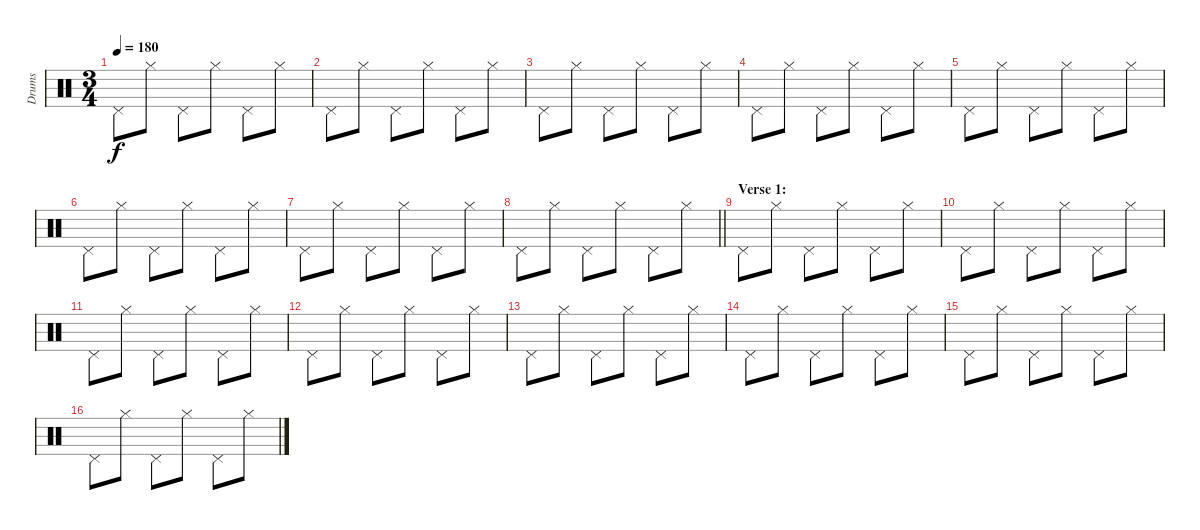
\track ("Drums" "Drums") {instrument percussion}
\staff {score}
\articulation defaults
\ts (3 4)
\tempo 180
\clef neutral
\ks c "Pedal Hi-Hat (hit)".8{dy f} "Hi-Hat (closed)".8 "Pedal Hi-Hat (hit)".8 "Hi-Hat (closed)".8 "Pedal Hi-Hat (hit)".8 "Hi-Hat (closed)".8
|
"Pedal Hi-Hat (hit)".8 "Hi-Hat (closed)".8 "Pedal Hi-Hat (hit)".8 "Hi-Hat (closed)".8 "Pedal Hi-Hat (hit)".8 "Hi-Hat (closed)".8 |
"Pedal Hi-Hat (hit)".8 "Hi-Hat (closed)".8 "Pedal Hi-Hat (hit)".8 "Hi-Hat (closed)".8 "Pedal Hi-Hat (hit)".8 "Hi-Hat (closed)".8 |
"Pedal Hi-Hat (hit)".8 "Hi-Hat (closed)".8 "Pedal Hi-Hat (hit)".8 "Hi-Hat (closed)".8 "Pedal Hi-Hat (hit)".8 "Hi-Hat (closed)".8 |
"Pedal Hi-Hat (hit)".8 "Hi-Hat (closed)".8 "Pedal Hi-Hat (hit)".8 "Hi-Hat (closed)".8 "Pedal Hi-Hat (hit)".8 "Hi-Hat (closed)".8 |
"Pedal Hi-Hat (hit)".8 "Hi-Hat (closed)".8 "Pedal Hi-Hat (hit)".8 "Hi-Hat (closed)".8 "Pedal Hi-Hat (hit)".8 "Hi-Hat (closed)".8 |
"Pedal Hi-Hat (hit)".8 "Hi-Hat (closed)".8 "Pedal Hi-Hat (hit)".8 "Hi-Hat (closed)".8 "Pedal Hi-Hat (hit)".8 "Hi-Hat (closed)".8 |
\barLineRight lightlight "Pedal Hi-Hat (hit)".8 "Hi-Hat (closed)".8 "Pedal Hi-Hat (hit)".8 "Hi-Hat (closed)".8 "Pedal Hi-Hat (hit)".8 "Hi-Hat (closed)".8
|
\section ("" "Verse 1:")
"Pedal Hi-Hat (hit)".8 "Hi-Hat (closed)".8 "Pedal Hi-Hat (hit)".8 "Hi-Hat (closed)".8 "Pedal Hi-Hat (hit)".8 "Hi-Hat (closed)".8 |
"Pedal Hi-Hat (hit)".8 "Hi-Hat (closed)".8 "Pedal Hi-Hat (hit)".8 "Hi-Hat (closed)".8 "Pedal Hi-Hat (hit)".8 "Hi-Hat (closed)".8 |
"Pedal Hi-Hat (hit)".8 "Hi-Hat (closed)".8 "Pedal Hi-Hat (hit)".8 "Hi-Hat (closed)".8 "Pedal Hi-Hat (hit)".8 "Hi-Hat (closed)".8 |
"Pedal Hi-Hat (hit)".8 "Hi-Hat (closed)".8 "Pedal Hi-Hat (hit)".8 "Hi-Hat (closed)".8 "Pedal Hi-Hat (hit)".8 "Hi-Hat (closed)".8 |
"Pedal Hi-Hat (hit)".8 "Hi-Hat (closed)".8 "Pedal Hi-Hat (hit)".8 "Hi-Hat (closed)".8 "Pedal Hi-Hat (hit)".8 "Hi-Hat (closed)".8 |
"Pedal Hi-Hat (hit)".8 "Hi-Hat (closed)".8 "Pedal Hi-Hat (hit)".8 "Hi-Hat (closed)".8 "Pedal Hi-Hat (hit)".8 "Hi-Hat (closed)".8 |
"Pedal Hi-Hat (hit)".8 "Hi-Hat (closed)".8 "Pedal Hi-Hat (hit)".8 "Hi-Hat (closed)".8 "Pedal Hi-Hat (hit)".8 "Hi-Hat (closed)".8 |
"Pedal Hi-Hat (hit)".8 "Hi-Hat (closed)".8 "Pedal Hi-Hat (hit)".8 "Hi-Hat (closed)".8 "Pedal Hi-Hat (hit)".8 "Hi-Hat (closed)".8
